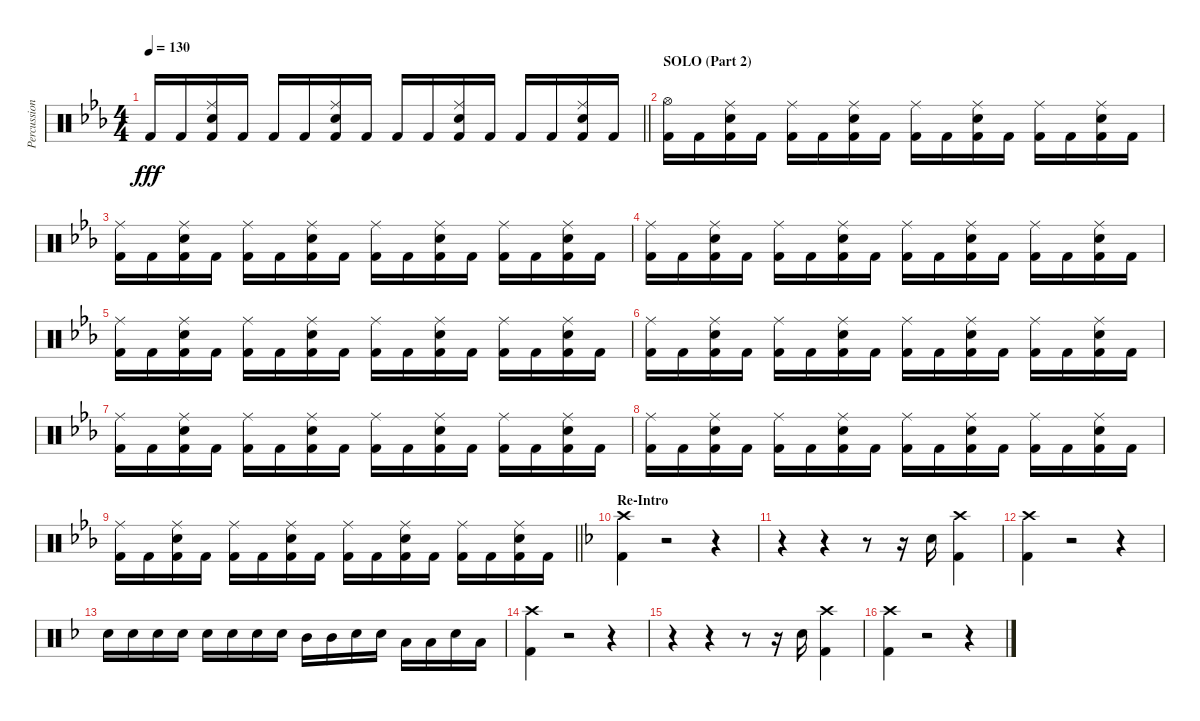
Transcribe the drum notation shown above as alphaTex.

\track ("Percussion" "Percussion") {instrument percussion}
\staff {score}
\articulation defaults
\ts (4 4)
\tempo 130
\clef neutral
\barLineRight lightlight
\ks cminor "Kick (hit) 2".16{dy fff} "Kick (hit) 2".16
("Ride (middle)" "Electric Snare (hit)" "Kick (hit) 2").16 "Kick (hit) 2".16 "Kick (hit) 2".16 "Kick (hit) 2".16 ("Ride (middle)" "Electric Snare (hit)" "Kick (hit) 2").16 "Kick (hit) 2".16 "Kick (hit) 2".16 "Kick (hit) 2".16 ("Ride (middle)" "Electric Snare (hit)" "Kick (hit) 2").16 "Kick (hit) 2".16 "Kick (hit) 2".16 "Kick (hit) 2".16 ("Ride (middle)" "Electric Snare (hit)" "Kick (hit) 2").16 "Kick (hit) 2".16 |
\section ("" "SOLO (Part 2)")
("Hi-Hat (open)" "Kick (hit) 2").16 "Kick (hit) 2".16 ("Ride (middle)" "Electric Snare (hit)" "Kick (hit) 2").16 "Kick (hit) 2".16 ("Ride (middle)" "Kick (hit) 2").16 "Kick (hit) 2".16 ("Ride (middle)" "Electric Snare (hit)" "Kick (hit) 2").16 "Kick (hit) 2".16 ("Ride (middle)" "Kick (hit) 2").16 "Kick (hit) 2".16 ("Ride (middle)" "Electric Snare (hit)" "Kick (hit) 2").16 "Kick (hit) 2".16 ("Ride (middle)" "Kick (hit) 2").16 "Kick (hit) 2".16 ("Ride (middle)" "Electric Snare (hit)" "Kick (hit) 2").16 "Kick (hit) 2".16 |
("Ride (middle)" "Kick (hit) 2").16 "Kick (hit) 2".16 ("Ride (middle)" "Electric Snare (hit)" "Kick (hit) 2").16 "Kick (hit) 2".16 ("Ride (middle)" "Kick (hit) 2").16 "Kick (hit) 2".16 ("Ride (middle)" "Electric Snare (hit)" "Kick (hit) 2").16 "Kick (hit) 2".16 ("Ride (middle)" "Kick (hit) 2").16 "Kick (hit) 2".16 ("Ride (middle)" "Electric Snare (hit)" "Kick (hit) 2").16 "Kick (hit) 2".16 ("Ride (middle)" "Kick (hit) 2").16 "Kick (hit) 2".16 ("Ride (middle)" "Electric Snare (hit)" "Kick (hit) 2").16 "Kick (hit) 2".16 |
("Ride (middle)" "Kick (hit) 2").16 "Kick (hit) 2".16 ("Ride (middle)" "Electric Snare (hit)" "Kick (hit) 2").16 "Kick (hit) 2".16 ("Ride (middle)" "Kick (hit) 2").16 "Kick (hit) 2".16 ("Ride (middle)" "Electric Snare (hit)" "Kick (hit) 2").16 "Kick (hit) 2".16 ("Ride (middle)" "Kick (hit) 2").16 "Kick (hit) 2".16 ("Ride (middle)" "Electric Snare (hit)" "Kick (hit) 2").16 "Kick (hit) 2".16 ("Ride (middle)" "Kick (hit) 2").16 "Kick (hit) 2".16 ("Ride (middle)" "Electric Snare (hit)" "Kick (hit) 2").16 "Kick (hit) 2".16 |
("Ride (middle)" "Kick (hit) 2").16 "Kick (hit) 2".16 ("Ride (middle)" "Electric Snare (hit)" "Kick (hit) 2").16 "Kick (hit) 2".16 ("Ride (middle)" "Kick (hit) 2").16 "Kick (hit) 2".16 ("Ride (middle)" "Electric Snare (hit)" "Kick (hit) 2").16 "Kick (hit) 2".16 ("Ride (middle)" "Kick (hit) 2").16 "Kick (hit) 2".16 ("Ride (middle)" "Electric Snare (hit)" "Kick (hit) 2").16 "Kick (hit) 2".16 ("Ride (middle)" "Kick (hit) 2").16 "Kick (hit) 2".16 ("Ride (middle)" "Electric Snare (hit)" "Kick (hit) 2").16 "Kick (hit) 2".16 |
("Ride (middle)" "Kick (hit) 2").16 "Kick (hit) 2".16 ("Ride (middle)" "Electric Snare (hit)" "Kick (hit) 2").16 "Kick (hit) 2".16 ("Ride (middle)" "Kick (hit) 2").16 "Kick (hit) 2".16 ("Ride (middle)" "Electric Snare (hit)" "Kick (hit) 2").16 "Kick (hit) 2".16 ("Ride (middle)" "Kick (hit) 2").16 "Kick (hit) 2".16 ("Ride (middle)" "Electric Snare (hit)" "Kick (hit) 2").16 "Kick (hit) 2".16 ("Ride (middle)" "Kick (hit) 2").16 "Kick (hit) 2".16 ("Ride (middle)" "Electric Snare (hit)" "Kick (hit) 2").16 "Kick (hit) 2".16 |
("Ride (middle)" "Kick (hit) 2").16 "Kick (hit) 2".16 ("Ride (middle)" "Electric Snare (hit)" "Kick (hit) 2").16 "Kick (hit) 2".16 ("Ride (middle)" "Kick (hit) 2").16 "Kick (hit) 2".16 ("Ride (middle)" "Electric Snare (hit)" "Kick (hit) 2").16 "Kick (hit) 2".16 ("Ride (middle)" "Kick (hit) 2").16 "Kick (hit) 2".16 ("Ride (middle)" "Electric Snare (hit)" "Kick (hit) 2").16 "Kick (hit) 2".16 ("Ride (middle)" "Kick (hit) 2").16 "Kick (hit) 2".16 ("Ride (middle)" "Electric Snare (hit)" "Kick (hit) 2").16 "Kick (hit) 2".16 |
("Ride (middle)" "Kick (hit) 2").16 "Kick (hit) 2".16 ("Ride (middle)" "Electric Snare (hit)" "Kick (hit) 2").16 "Kick (hit) 2".16 ("Ride (middle)" "Kick (hit) 2").16 "Kick (hit) 2".16 ("Ride (middle)" "Electric Snare (hit)" "Kick (hit) 2").16 "Kick (hit) 2".16 ("Ride (middle)" "Kick (hit) 2").16 "Kick (hit) 2".16 ("Ride (middle)" "Electric Snare (hit)" "Kick (hit) 2").16 "Kick (hit) 2".16 ("Ride (middle)" "Kick (hit) 2").16 "Kick (hit) 2".16 ("Ride (middle)" "Electric Snare (hit)" "Kick (hit) 2").16 "Kick (hit) 2".16 |
\barLineRight lightlight
("Ride (middle)" "Kick (hit) 2").16 "Kick (hit) 2".16 ("Ride (middle)" "Electric Snare (hit)" "Kick (hit) 2").16 "Kick (hit) 2".16 ("Ride (middle)" "Kick (hit) 2").16 "Kick (hit) 2".16 ("Ride (middle)" "Electric Snare (hit)" "Kick (hit) 2").16 "Kick (hit) 2".16 ("Ride (middle)" "Kick (hit) 2").16 "Kick (hit) 2".16 ("Ride (middle)" "Electric Snare (hit)" "Kick (hit) 2").16 "Kick (hit) 2".16 ("Ride (middle)" "Kick (hit) 2").16 "Kick (hit) 2".16 ("Ride (middle)" "Electric Snare (hit)" "Kick (hit) 2").16 "Kick (hit) 2".16 |
\section ("" "Re-Intro")
\ks dminor
("Crash high (hit)" "Kick (hit) 2").4 r.2 r.4 |
r.4 r.4 r.8 r.16 "Electric Snare (hit)".16 ("Crash high (hit)" "Kick (hit) 2").4 |
("Crash high (hit)" "Kick (hit) 2").4 r.2 r.4 |
"Electric Snare (hit)".16 "Electric Snare (hit)".16 "Electric Snare (hit)".16 "Electric Snare (hit)".16 "Electric Snare (hit)".16 "Electric Snare (hit)".16 "Electric Snare (hit)".16 "Electric Snare (hit)".16 "Mid Tom (hit)".16 "Mid Tom (hit)".16 "Electric Snare (hit)".16 "Electric Snare (hit)".16 "Low Tom (hit)".16 "Low Tom (hit)".16 "Electric Snare (hit)".16 "Low Tom (hit)".16 |
("Crash high (hit)" "Kick (hit) 2").4 r.2 r.4 |
r.4 r.4 r.8 r.16 "Electric Snare (hit)".16 ("Crash high (hit)" "Kick (hit) 2").4 |
("Crash high (hit)" "Kick (hit) 2").4 r.2 r.4
